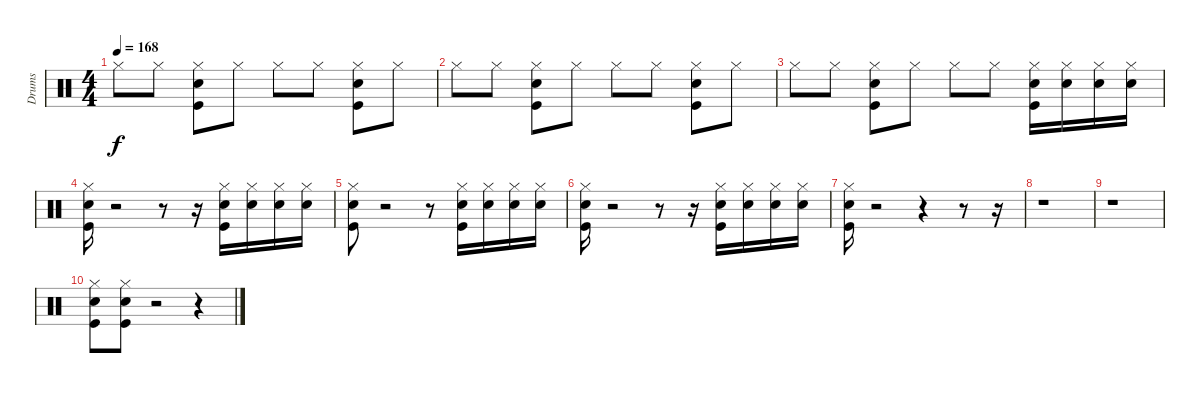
\track ("Drums" "Drums") {instrument percussion}
\staff {score}
\articulation defaults
\ts (4 4)
\tempo 168
\clef neutral
\ks c "Hi-Hat (closed)".8{dy f} "Hi-Hat (closed)".8
("Snare (hit) 2" "Kick (hit)" "Hi-Hat (closed)").8 "Hi-Hat (closed)".8 "Hi-Hat (closed)".8 "Hi-Hat (closed)".8 ("Snare (hit) 2" "Kick (hit)" "Hi-Hat (closed)").8 "Hi-Hat (closed)".8 |
"Hi-Hat (closed)".8 "Hi-Hat (closed)".8 ("Snare (hit) 2" "Kick (hit)" "Hi-Hat (closed)").8 "Hi-Hat (closed)".8 "Hi-Hat (closed)".8 "Hi-Hat (closed)".8 ("Snare (hit) 2" "Kick (hit)" "Hi-Hat (closed)").8 "Hi-Hat (closed)".8 |
"Hi-Hat (closed)".8 "Hi-Hat (closed)".8 ("Snare (hit) 2" "Kick (hit)" "Hi-Hat (closed)").8 "Hi-Hat (closed)".8 "Hi-Hat (closed)".8 "Hi-Hat (closed)".8 ("Snare (hit) 2" "Kick (hit)" "Hi-Hat (closed)").16 ("Hi-Hat (closed)" "Snare (hit) 2").16 ("Hi-Hat (closed)" "Snare (hit) 2").16 ("Snare (hit) 2" "Hi-Hat (closed)").16 |
("Snare (hit) 2" "Kick (hit)" "Hi-Hat (closed)").16 r.2 r.8 r.16 ("Snare (hit) 2" "Kick (hit)" "Hi-Hat (closed)").16 ("Hi-Hat (closed)" "Snare (hit) 2").16 ("Hi-Hat (closed)" "Snare (hit) 2").16 ("Hi-Hat (closed)" "Snare (hit) 2").16 |
("Snare (hit) 2" "Kick (hit)" "Hi-Hat (closed)").8 r.2 r.8 ("Snare (hit) 2" "Kick (hit)" "Hi-Hat (closed)").16 ("Hi-Hat (closed)" "Snare (hit) 2").16 ("Hi-Hat (closed)" "Snare (hit) 2").16 ("Hi-Hat (closed)" "Snare (hit) 2").16 |
("Snare (hit) 2" "Kick (hit)" "Hi-Hat (closed)").16 r.2 r.8 r.16 ("Snare (hit) 2" "Kick (hit)" "Hi-Hat (closed)").16 ("Hi-Hat (closed)" "Snare (hit) 2").16 ("Hi-Hat (closed)" "Snare (hit) 2").16 ("Hi-Hat (closed)" "Snare (hit) 2").16 |
("Snare (hit) 2" "Kick (hit)" "Hi-Hat (closed)").16 r.2 r.4 r.8 r.16 |
r.1 |
r.1 |
("Snare (hit) 2" "Kick (hit)" "Hi-Hat (closed)").8 ("Hi-Hat (closed)" "Snare (hit) 2" "Kick (hit)").8 r.2 r.4
